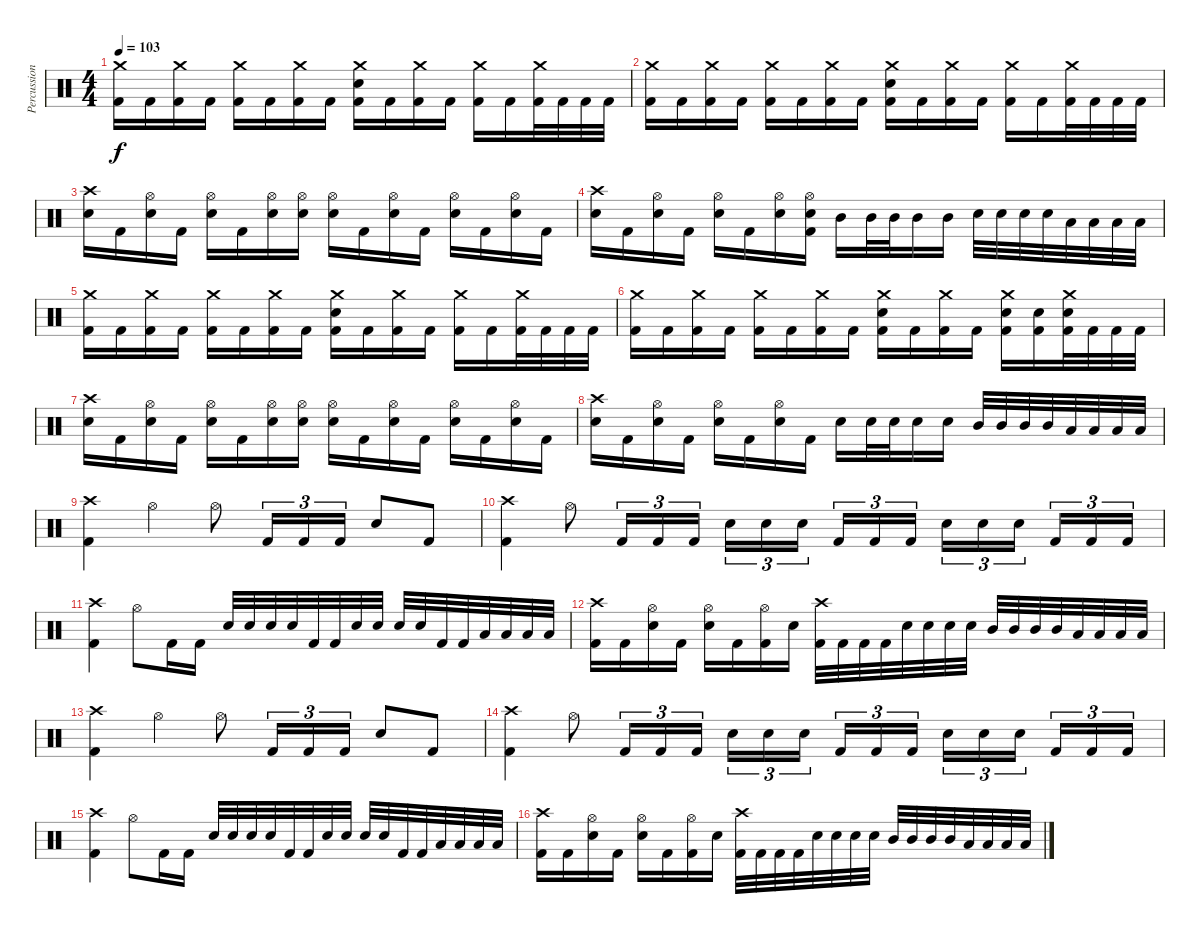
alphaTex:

\track ("Percussion" "Percussion") {instrument percussion}
\staff {score}
\articulation defaults
\ts (4 4)
\tempo 103
\clef neutral
\ks c
("Crash medium (hit)" "Kick (hit) 2").16{dy f} "Kick (hit) 2".16 ("Crash medium (hit)" "Kick (hit) 2").16 "Kick (hit) 2".16 ("Crash medium (hit)" "Kick (hit) 2").16 "Kick (hit) 2".16 ("Crash medium (hit)" "Kick (hit) 2").16 "Kick (hit) 2".16 ("Crash medium (hit)" "Electric Snare (hit)" "Kick (hit) 2").16 "Kick (hit) 2".16 ("Crash medium (hit)" "Kick (hit) 2").16 "Kick (hit) 2".16 ("Crash medium (hit)" "Kick (hit) 2").16 "Kick (hit) 2".16 ("Crash medium (hit)" "Kick (hit) 2").32 "Kick (hit) 2".32 "Kick (hit) 2".32 "Kick (hit) 2".32 |
("Crash medium (hit)" "Kick (hit) 2").16 "Kick (hit) 2".16 ("Crash medium (hit)" "Kick (hit) 2").16 "Kick (hit) 2".16 ("Crash medium (hit)" "Kick (hit) 2").16 "Kick (hit) 2".16 ("Crash medium (hit)" "Kick (hit) 2").16 "Kick (hit) 2".16 ("Crash medium (hit)" "Electric Snare (hit)" "Kick (hit) 2").16 "Kick (hit) 2".16 ("Crash medium (hit)" "Kick (hit) 2").16 "Kick (hit) 2".16 ("Crash medium (hit)" "Kick (hit) 2").16 "Kick (hit) 2".16 ("Crash medium (hit)" "Kick (hit) 2").32 "Kick (hit) 2".32 "Kick (hit) 2".32 "Kick (hit) 2".32 |
("Crash high (hit)" "Electric Snare (hit)").16 "Kick (hit) 2".16 ("Hi-Hat (open)" "Electric Snare (hit)").16 "Kick (hit) 2".16 ("Hi-Hat (open)" "Electric Snare (hit)").16 "Kick (hit) 2".16 ("Hi-Hat (open)" "Electric Snare (hit)").16 ("Hi-Hat (open)" "Electric Snare (hit)").16 ("Hi-Hat (open)" "Electric Snare (hit)").16 "Kick (hit) 2".16 ("Hi-Hat (open)" "Electric Snare (hit)").16 "Kick (hit) 2".16 ("Hi-Hat (open)" "Electric Snare (hit)").16 "Kick (hit) 2".16 ("Hi-Hat (open)" "Electric Snare (hit)").16 "Kick (hit) 2".16 |
("Crash high (hit)" "Electric Snare (hit)").16 "Kick (hit) 2".16 ("Hi-Hat (open)" "Electric Snare (hit)").16 "Kick (hit) 2".16 ("Hi-Hat (open)" "Electric Snare (hit)").16 "Kick (hit) 2".16 ("Hi-Hat (open)" "Electric Snare (hit)").16 ("Hi-Hat (open)" "Electric Snare (hit)" "Kick (hit) 2").16 "Mid Tom (hit)".16 "Mid Tom (hit)".32 "Mid Tom (hit)".32 "Mid Tom (hit)".16 "Mid Tom (hit)".16 "Electric Snare (hit)".32 "Electric Snare (hit)".32 "Electric Snare (hit)".32 "Electric Snare (hit)".32 "Low Tom (hit)".32 "Low Tom (hit)".32 "Low Tom (hit)".32 "Low Tom (hit)".32 |
("Crash medium (hit)" "Kick (hit) 2").16 "Kick (hit) 2".16 ("Crash medium (hit)" "Kick (hit) 2").16 "Kick (hit) 2".16 ("Crash medium (hit)" "Kick (hit) 2").16 "Kick (hit) 2".16 ("Crash medium (hit)" "Kick (hit) 2").16 "Kick (hit) 2".16 ("Crash medium (hit)" "Electric Snare (hit)" "Kick (hit) 2").16 "Kick (hit) 2".16 ("Crash medium (hit)" "Kick (hit) 2").16 "Kick (hit) 2".16 ("Crash medium (hit)" "Kick (hit) 2").16 "Kick (hit) 2".16 ("Crash medium (hit)" "Kick (hit) 2").32 "Kick (hit) 2".32 "Kick (hit) 2".32 "Kick (hit) 2".32 |
("Crash medium (hit)" "Kick (hit) 2").16 "Kick (hit) 2".16 ("Crash medium (hit)" "Kick (hit) 2").16 "Kick (hit) 2".16 ("Crash medium (hit)" "Kick (hit) 2").16 "Kick (hit) 2".16 ("Crash medium (hit)" "Kick (hit) 2").16 "Kick (hit) 2".16 ("Crash medium (hit)" "Electric Snare (hit)" "Kick (hit) 2").16 "Kick (hit) 2".16 ("Crash medium (hit)" "Kick (hit) 2").16 "Kick (hit) 2".16 ("Crash medium (hit)" "Electric Snare (hit)" "Kick (hit) 2").16 ("Electric Snare (hit)" "Kick (hit) 2").16 ("Crash medium (hit)" "Electric Snare (hit)" "Kick (hit) 2").32 "Kick (hit) 2".32 "Kick (hit) 2".32 "Kick (hit) 2".32 |
("Crash high (hit)" "Electric Snare (hit)").16 "Kick (hit) 2".16 ("Hi-Hat (open)" "Electric Snare (hit)").16 "Kick (hit) 2".16 ("Hi-Hat (open)" "Electric Snare (hit)").16 "Kick (hit) 2".16 ("Hi-Hat (open)" "Electric Snare (hit)").16 ("Hi-Hat (open)" "Electric Snare (hit)").16 ("Hi-Hat (open)" "Electric Snare (hit)").16 "Kick (hit) 2".16 ("Hi-Hat (open)" "Electric Snare (hit)").16 "Kick (hit) 2".16 ("Hi-Hat (open)" "Electric Snare (hit)").16 "Kick (hit) 2".16 ("Hi-Hat (open)" "Electric Snare (hit)").16 "Kick (hit) 2".16 |
("Crash high (hit)" "Electric Snare (hit)").16 "Kick (hit) 2".16 ("Hi-Hat (open)" "Electric Snare (hit)").16 "Kick (hit) 2".16 ("Hi-Hat (open)" "Electric Snare (hit)").16 "Kick (hit) 2".16 ("Hi-Hat (open)" "Electric Snare (hit)").16 "Kick (hit) 2".16 "Electric Snare (hit)".16 "Electric Snare (hit)".32 "Electric Snare (hit)".32 "Electric Snare (hit)".16 "Electric Snare (hit)".16 "Mid Tom (hit)".32 "Mid Tom (hit)".32 "Mid Tom (hit)".32 "Mid Tom (hit)".32 "Low Tom (hit)".32 "Low Tom (hit)".32 "Low Tom (hit)".32 "Low Tom (hit)".32 |
("Crash high (hit)" "Kick (hit) 2").4 "Hi-Hat (open)".4 "Hi-Hat (open)".8 "Kick (hit) 2".16{tu (3 2)} "Kick (hit) 2".16{tu (3 2)} "Kick (hit) 2".16{tu (3 2)} "Electric Snare (hit)".8 "Kick (hit) 2".8 |
("Crash high (hit)" "Kick (hit) 2").4 "Hi-Hat (open)".8 "Kick (hit) 2".16{tu (3 2)} "Kick (hit) 2".16{tu (3 2)} "Kick (hit) 2".16{tu (3 2)} "Electric Snare (hit)".16{tu (3 2)} "Electric Snare (hit)".16{tu (3 2)} "Electric Snare (hit)".16{tu (3 2)} "Kick (hit) 2".16{tu (3 2)} "Kick (hit) 2".16{tu (3 2)} "Kick (hit) 2".16{tu (3 2)} "Electric Snare (hit)".16{tu (3 2)} "Electric Snare (hit)".16{tu (3 2)} "Electric Snare (hit)".16{tu (3 2)} "Kick (hit) 2".16{tu (3 2)} "Kick (hit) 2".16{tu (3 2)} "Kick (hit) 2".16{tu (3 2)} |
("Crash high (hit)" "Kick (hit) 2").4 "Hi-Hat (open)".8 "Kick (hit) 2".16 "Kick (hit) 2".16 "Electric Snare (hit)".32 "Electric Snare (hit)".32 "Electric Snare (hit)".32 "Electric Snare (hit)".32 "Kick (hit) 2".32 "Kick (hit) 2".32 "Electric Snare (hit)".32 "Electric Snare (hit)".32 "Electric Snare (hit)".32 "Electric Snare (hit)".32 "Kick (hit) 2".32 "Kick (hit) 2".32 "Low Tom (hit)".32 "Low Tom (hit)".32 "Low Tom (hit)".32 "Low Tom (hit)".32 |
("Crash high (hit)" "Kick (hit) 2").16 "Kick (hit) 2".16 ("Hi-Hat (open)" "Electric Snare (hit)").16 "Kick (hit) 2".16 ("Hi-Hat (open)" "Electric Snare (hit)").16 "Kick (hit) 2".16 ("Hi-Hat (open)" "Kick (hit) 2").16 "Electric Snare (hit)".16 ("Crash high (hit)" "Kick (hit) 2").32 "Kick (hit) 2".32 "Kick (hit) 2".32 "Kick (hit) 2".32 "Electric Snare (hit)".32 "Electric Snare (hit)".32 "Electric Snare (hit)".32 "Electric Snare (hit)".32 "Mid Tom (hit)".32 "Mid Tom (hit)".32 "Mid Tom (hit)".32 "Mid Tom (hit)".32 "Low Tom (hit)".32 "Low Tom (hit)".32 "Low Tom (hit)".32 "Low Tom (hit)".32 |
("Crash high (hit)" "Kick (hit) 2").4 "Hi-Hat (open)".4 "Hi-Hat (open)".8 "Kick (hit) 2".16{tu (3 2)} "Kick (hit) 2".16{tu (3 2)} "Kick (hit) 2".16{tu (3 2)} "Electric Snare (hit)".8 "Kick (hit) 2".8 |
("Crash high (hit)" "Kick (hit) 2").4 "Hi-Hat (open)".8 "Kick (hit) 2".16{tu (3 2)} "Kick (hit) 2".16{tu (3 2)} "Kick (hit) 2".16{tu (3 2)} "Electric Snare (hit)".16{tu (3 2)} "Electric Snare (hit)".16{tu (3 2)} "Electric Snare (hit)".16{tu (3 2)} "Kick (hit) 2".16{tu (3 2)} "Kick (hit) 2".16{tu (3 2)} "Kick (hit) 2".16{tu (3 2)} "Electric Snare (hit)".16{tu (3 2)} "Electric Snare (hit)".16{tu (3 2)} "Electric Snare (hit)".16{tu (3 2)} "Kick (hit) 2".16{tu (3 2)} "Kick (hit) 2".16{tu (3 2)} "Kick (hit) 2".16{tu (3 2)} |
("Crash high (hit)" "Kick (hit) 2").4 "Hi-Hat (open)".8 "Kick (hit) 2".16 "Kick (hit) 2".16 "Electric Snare (hit)".32 "Electric Snare (hit)".32 "Electric Snare (hit)".32 "Electric Snare (hit)".32 "Kick (hit) 2".32 "Kick (hit) 2".32 "Electric Snare (hit)".32 "Electric Snare (hit)".32 "Electric Snare (hit)".32 "Electric Snare (hit)".32 "Kick (hit) 2".32 "Kick (hit) 2".32 "Low Tom (hit)".32 "Low Tom (hit)".32 "Low Tom (hit)".32 "Low Tom (hit)".32 |
("Crash high (hit)" "Kick (hit) 2").16 "Kick (hit) 2".16 ("Hi-Hat (open)" "Electric Snare (hit)").16 "Kick (hit) 2".16 ("Hi-Hat (open)" "Electric Snare (hit)").16 "Kick (hit) 2".16 ("Hi-Hat (open)" "Kick (hit) 2").16 "Electric Snare (hit)".16 ("Crash high (hit)" "Kick (hit) 2").32 "Kick (hit) 2".32 "Kick (hit) 2".32 "Kick (hit) 2".32 "Electric Snare (hit)".32 "Electric Snare (hit)".32 "Electric Snare (hit)".32 "Electric Snare (hit)".32 "Mid Tom (hit)".32 "Mid Tom (hit)".32 "Mid Tom (hit)".32 "Mid Tom (hit)".32 "Low Tom (hit)".32 "Low Tom (hit)".32 "Low Tom (hit)".32 "Low Tom (hit)".32
